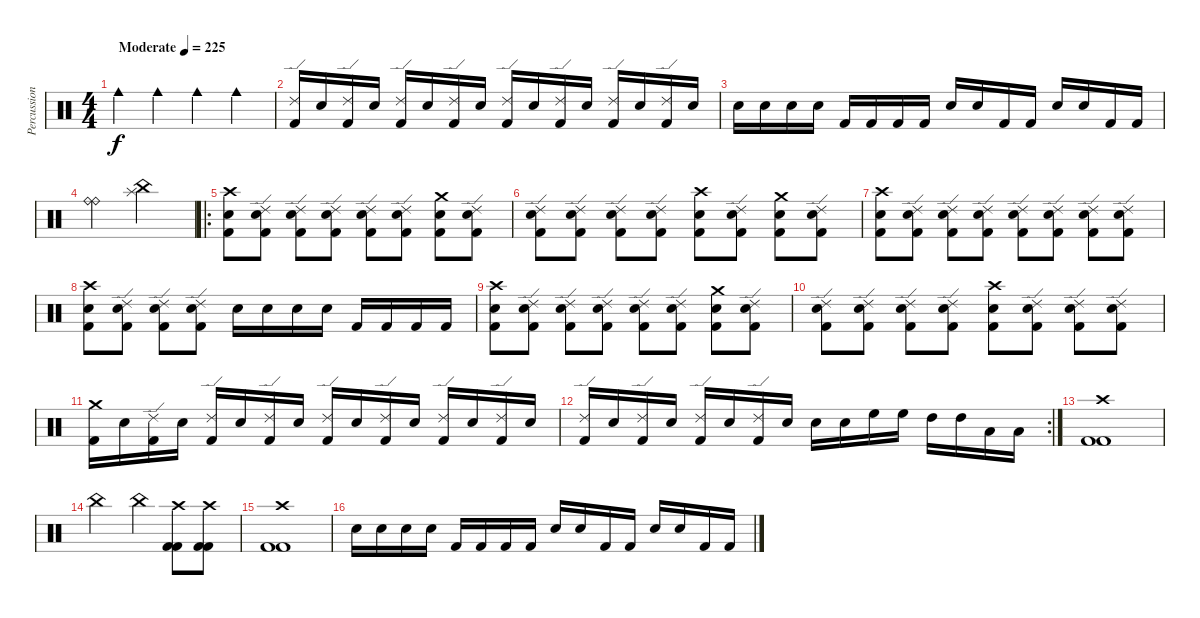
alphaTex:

\track ("Percussion" "Percussion") {instrument percussion}
\staff {score}
\articulation defaults
\ts (4 4)
\tempo (225 "Moderate")
\clef neutral
\ks c "Cowbell medium (hit)".4{dy f} "Cowbell medium (hit)".4 "Cowbell medium (hit)".4 "Cowbell medium (hit)".4
|
("Ride (edge) 2" "Kick (hit) 2").16 "Electric Snare (hit)".16 ("Ride (edge) 2" "Kick (hit) 2").16 "Electric Snare (hit)".16 ("Ride (edge) 2" "Kick (hit) 2").16 "Electric Snare (hit)".16 ("Ride (edge) 2" "Kick (hit) 2").16 "Electric Snare (hit)".16 ("Ride (edge) 2" "Kick (hit) 2").16 "Electric Snare (hit)".16 ("Ride (edge) 2" "Kick (hit) 2").16 "Electric Snare (hit)".16 ("Ride (edge) 2" "Kick (hit) 2").16 "Electric Snare (hit)".16 ("Ride (edge) 2" "Kick (hit) 2").16 "Electric Snare (hit)".16 |
"Electric Snare (hit)".16 "Electric Snare (hit)".16 "Electric Snare (hit)".16 "Electric Snare (hit)".16 "Kick (hit) 2".16 "Kick (hit) 2".16 "Kick (hit) 2".16 "Kick (hit) 2".16 "Electric Snare (hit)".16 "Electric Snare (hit)".16 "Kick (hit) 2".16 "Kick (hit) 2".16 "Electric Snare (hit)".16 "Electric Snare (hit)".16 "Kick (hit) 2".16 "Kick (hit) 2".16 |
("Ride (bell)" "Ride (bell)").2 ("China (hit)" "Splash (hit)").2 |
\ro
("Crash high (hit)" "Kick (hit) 2" "Electric Snare (hit)").8 ("Ride (edge) 2" "Kick (hit) 2" "Electric Snare (hit)").8 ("Ride (edge) 2" "Kick (hit) 2" "Electric Snare (hit)").8 ("Ride (edge) 2" "Kick (hit) 2" "Electric Snare (hit)").8 ("Ride (edge) 2" "Kick (hit) 2" "Electric Snare (hit)").8 ("Ride (edge) 2" "Kick (hit) 2" "Electric Snare (hit)").8 ("Crash medium (hit)" "Kick (hit) 2" "Electric Snare (hit)").8 ("Ride (edge) 2" "Kick (hit) 2" "Electric Snare (hit)").8 |
("Ride (edge) 2" "Kick (hit) 2" "Electric Snare (hit)").8 ("Ride (edge) 2" "Kick (hit) 2" "Electric Snare (hit)").8 ("Ride (edge) 2" "Kick (hit) 2" "Electric Snare (hit)").8 ("Ride (edge) 2" "Kick (hit) 2" "Electric Snare (hit)").8 ("Crash high (hit)" "Kick (hit) 2" "Electric Snare (hit)").8 ("Ride (edge) 2" "Kick (hit) 2" "Electric Snare (hit)").8 ("Crash medium (hit)" "Kick (hit) 2" "Electric Snare (hit)").8 ("Ride (edge) 2" "Kick (hit) 2" "Electric Snare (hit)").8 |
("Crash high (hit)" "Kick (hit) 2" "Electric Snare (hit)").8 ("Ride (edge) 2" "Kick (hit) 2" "Electric Snare (hit)").8 ("Ride (edge) 2" "Kick (hit) 2" "Electric Snare (hit)").8 ("Ride (edge) 2" "Kick (hit) 2" "Electric Snare (hit)").8 ("Ride (edge) 2" "Kick (hit) 2" "Electric Snare (hit)").8 ("Ride (edge) 2" "Kick (hit) 2" "Electric Snare (hit)").8 ("Ride (edge) 2" "Kick (hit) 2" "Electric Snare (hit)").8 ("Ride (edge) 2" "Kick (hit) 2" "Electric Snare (hit)").8 |
("Crash high (hit)" "Kick (hit) 2" "Electric Snare (hit)").8 ("Ride (edge) 2" "Kick (hit) 2" "Electric Snare (hit)").8 ("Ride (edge) 2" "Kick (hit) 2" "Electric Snare (hit)").8 ("Ride (edge) 2" "Kick (hit) 2" "Electric Snare (hit)").8 "Electric Snare (hit)".16 "Electric Snare (hit)".16 "Electric Snare (hit)".16 "Electric Snare (hit)".16 "Kick (hit) 2".16 "Kick (hit) 2".16 "Kick (hit) 2".16 "Kick (hit) 2".16 |
("Crash high (hit)" "Kick (hit) 2" "Electric Snare (hit)").8 ("Ride (edge) 2" "Kick (hit) 2" "Electric Snare (hit)").8 ("Ride (edge) 2" "Kick (hit) 2" "Electric Snare (hit)").8 ("Ride (edge) 2" "Kick (hit) 2" "Electric Snare (hit)").8 ("Ride (edge) 2" "Kick (hit) 2" "Electric Snare (hit)").8 ("Ride (edge) 2" "Kick (hit) 2" "Electric Snare (hit)").8 ("Crash medium (hit)" "Kick (hit) 2" "Electric Snare (hit)").8 ("Ride (edge) 2" "Kick (hit) 2" "Electric Snare (hit)").8 |
("Ride (edge) 2" "Kick (hit) 2" "Electric Snare (hit)").8 ("Ride (edge) 2" "Kick (hit) 2" "Electric Snare (hit)").8 ("Ride (edge) 2" "Kick (hit) 2" "Electric Snare (hit)").8 ("Ride (edge) 2" "Kick (hit) 2" "Electric Snare (hit)").8 ("Crash high (hit)" "Kick (hit) 2" "Electric Snare (hit)").8 ("Ride (edge) 2" "Kick (hit) 2" "Electric Snare (hit)").8 ("Ride (edge) 2" "Kick (hit) 2" "Electric Snare (hit)").8 ("Ride (edge) 2" "Kick (hit) 2" "Electric Snare (hit)").8 |
("Crash medium (hit)" "Kick (hit) 2").16 "Electric Snare (hit)".16 ("Ride (edge) 2" "Kick (hit) 2").16 "Electric Snare (hit)".16 ("Ride (edge) 2" "Kick (hit) 2").16 "Electric Snare (hit)".16 ("Ride (edge) 2" "Kick (hit) 2").16 "Electric Snare (hit)".16 ("Ride (edge) 2" "Kick (hit) 2").16 "Electric Snare (hit)".16 ("Ride (edge) 2" "Kick (hit) 2").16 "Electric Snare (hit)".16 ("Ride (edge) 2" "Kick (hit) 2").16 "Electric Snare (hit)".16 ("Ride (edge) 2" "Kick (hit) 2").16 "Electric Snare (hit)".16 |
\rc 2
("Ride (edge) 2" "Kick (hit) 2").16 "Electric Snare (hit)".16 ("Ride (edge) 2" "Kick (hit) 2").16 "Electric Snare (hit)".16 ("Ride (edge) 2" "Kick (hit) 2").16 "Electric Snare (hit)".16 ("Ride (edge) 2" "Kick (hit) 2").16 "Electric Snare (hit)".16 "Electric Snare (hit)".16 "Electric Snare (hit)".16 "High Floor Tom (hit)".16 "High Floor Tom (hit)".16 "High Tom (hit)".16 "High Tom (hit)".16 "Low Tom (hit)".16 "Low Floor Tom (hit)".16 |
("Crash high (hit)" "Kick (hit) 2" "Kick (hit) 2").1 |
"China (hit)".2 "China (hit)".4 ("Crash high (hit)" "Kick (hit) 2" "Kick (hit) 2").8 ("Crash high (hit)" "Kick (hit) 2" "Kick (hit) 2").8 |
("Crash high (hit)" "Kick (hit) 2" "Kick (hit) 2").1 |
"Electric Snare (hit)".16 "Electric Snare (hit)".16 "Electric Snare (hit)".16 "Electric Snare (hit)".16 "Kick (hit) 2".16 "Kick (hit) 2".16 "Kick (hit) 2".16 "Kick (hit) 2".16 "Electric Snare (hit)".16 "Electric Snare (hit)".16 "Kick (hit) 2".16 "Kick (hit) 2".16 "Electric Snare (hit)".16 "Electric Snare (hit)".16 "Kick (hit) 2".16 "Kick (hit) 2".16
